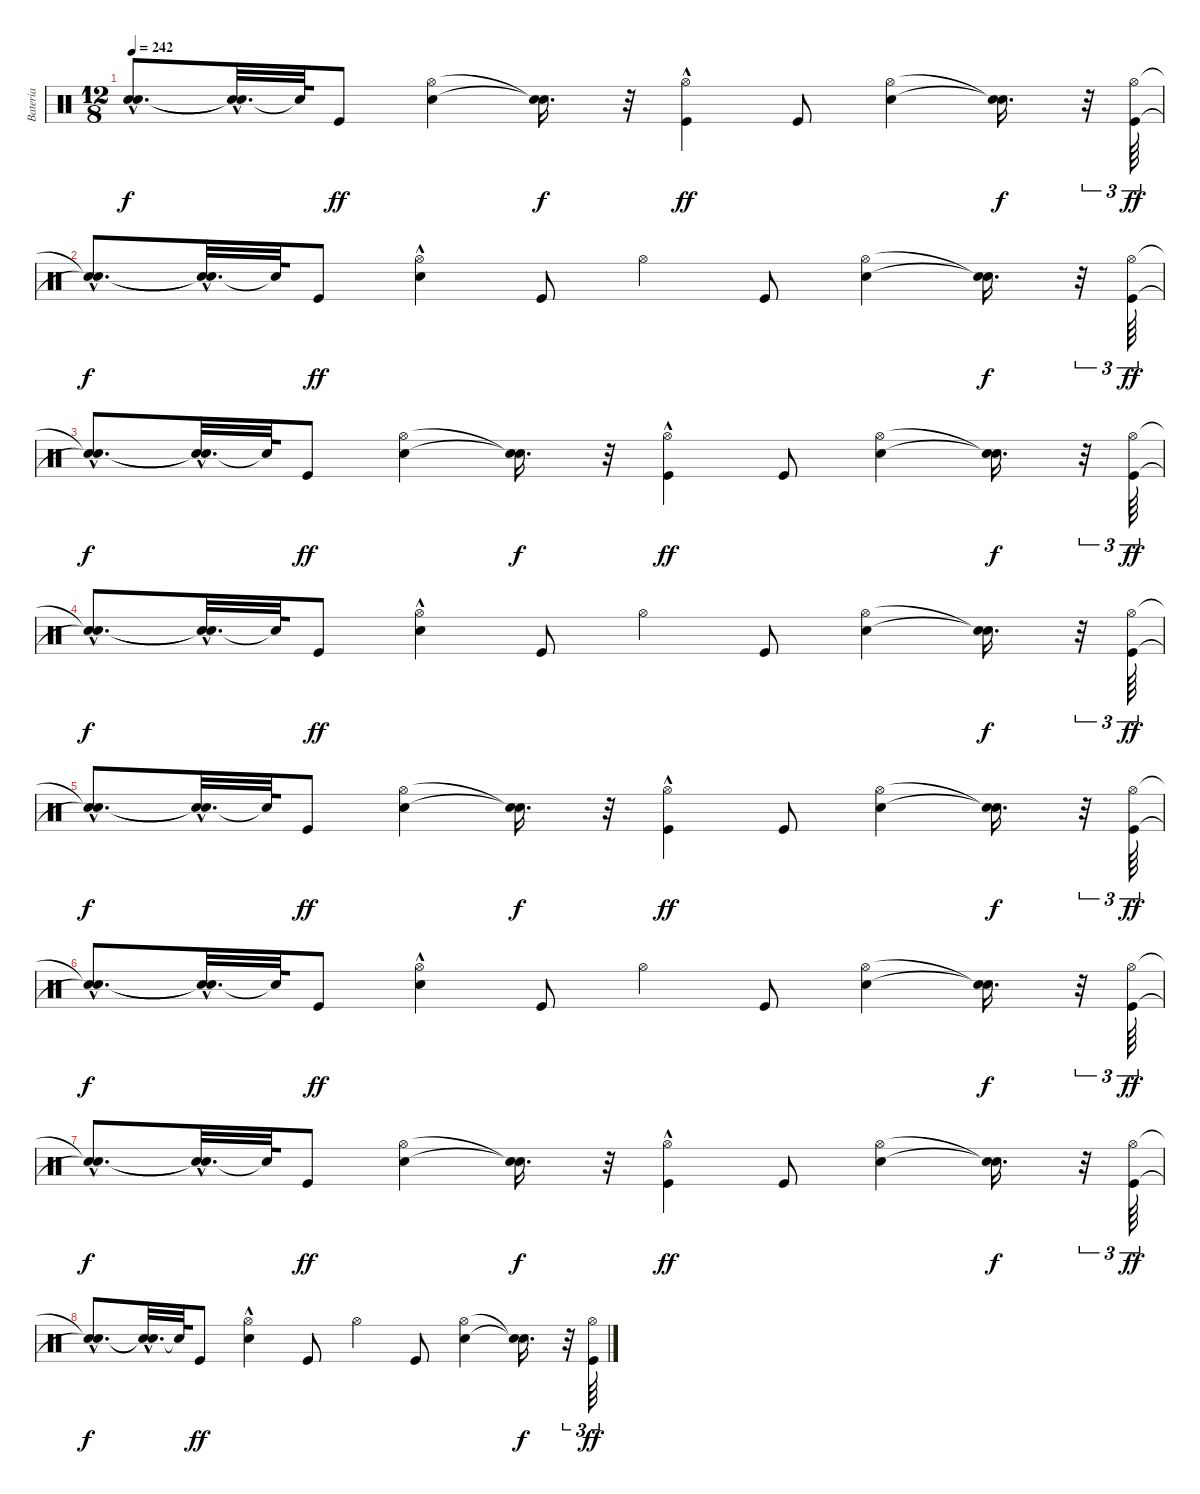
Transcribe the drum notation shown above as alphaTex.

\track ("Bateria" "Bateria") {instrument percussion}
\staff {score}
\articulation defaults
\ts (12 8)
\tempo 242
\clef neutral
\ks c
("Snare (hit)"{hac t} "Snare (hit)"{hac t}).8{d dy f} ("Snare (hit)"{t} "Snare (hit)"{hac t}).32{d} "Snare (hit)"{t}.64 "Kick (hit)".8{dy ff} ("Snare (hit) 2" "Hi-Hat (open)").4 ("Snare (hit)"{t} "Snare (hit)"{t}).16{d dy f} r.32 ("Kick (hit)"{hac} "Hi-Hat (open)").4{dy ff} "Kick (hit)".8 ("Snare (hit) 2" "Hi-Hat (open)").4 ("Snare (hit)"{t} "Snare (hit)"{t}).16{d dy f} r.32{tu (3 2)} ("Kick (hit)" "Hi-Hat (open)").64{tu (3 2) dy ff} |
("Snare (hit)"{hac t} "Snare (hit)"{hac t}).8{d dy f} ("Snare (hit)"{t} "Snare (hit)"{hac t}).32{d} "Snare (hit)"{t}.64 "Kick (hit)".8{dy ff} ("Snare (hit) 2"{hac} "Hi-Hat (open)").4 "Kick (hit)".8 "Hi-Hat (open)".4 "Kick (hit)".8 ("Snare (hit) 2" "Hi-Hat (open)").4 ("Snare (hit)"{t} "Snare (hit)"{t}).16{d dy f} r.32{tu (3 2)} ("Kick (hit)" "Hi-Hat (open)").64{tu (3 2) dy ff} |
("Snare (hit)"{hac t} "Snare (hit)"{hac t}).8{d dy f} ("Snare (hit)"{t} "Snare (hit)"{hac t}).32{d} "Snare (hit)"{t}.64 "Kick (hit)".8{dy ff} ("Snare (hit) 2" "Hi-Hat (open)").4 ("Snare (hit)"{t} "Snare (hit)"{t}).16{d dy f} r.32 ("Kick (hit)"{hac} "Hi-Hat (open)").4{dy ff} "Kick (hit)".8 ("Snare (hit) 2" "Hi-Hat (open)").4 ("Snare (hit)"{t} "Snare (hit)"{t}).16{d dy f} r.32{tu (3 2)} ("Kick (hit)" "Hi-Hat (open)").64{tu (3 2) dy ff} |
("Snare (hit)"{hac t} "Snare (hit)"{hac t}).8{d dy f} ("Snare (hit)"{t} "Snare (hit)"{hac t}).32{d} "Snare (hit)"{t}.64 "Kick (hit)".8{dy ff} ("Snare (hit) 2"{hac} "Hi-Hat (open)").4 "Kick (hit)".8 "Hi-Hat (open)".4 "Kick (hit)".8 ("Snare (hit) 2" "Hi-Hat (open)").4 ("Snare (hit)"{t} "Snare (hit)"{t}).16{d dy f} r.32{tu (3 2)} ("Kick (hit)" "Hi-Hat (open)").64{tu (3 2) dy ff} |
("Snare (hit)"{hac t} "Snare (hit)"{hac t}).8{d dy f} ("Snare (hit)"{t} "Snare (hit)"{hac t}).32{d} "Snare (hit)"{t}.64 "Kick (hit)".8{dy ff} ("Snare (hit) 2" "Hi-Hat (open)").4 ("Snare (hit)"{t} "Snare (hit)"{t}).16{d dy f} r.32 ("Kick (hit)"{hac} "Hi-Hat (open)").4{dy ff} "Kick (hit)".8 ("Snare (hit) 2" "Hi-Hat (open)").4 ("Snare (hit)"{t} "Snare (hit)"{t}).16{d dy f} r.32{tu (3 2)} ("Kick (hit)" "Hi-Hat (open)").64{tu (3 2) dy ff} |
("Snare (hit)"{hac t} "Snare (hit)"{hac t}).8{d dy f} ("Snare (hit)"{t} "Snare (hit)"{hac t}).32{d} "Snare (hit)"{t}.64 "Kick (hit)".8{dy ff} ("Snare (hit) 2"{hac} "Hi-Hat (open)").4 "Kick (hit)".8 "Hi-Hat (open)".4 "Kick (hit)".8 ("Snare (hit) 2" "Hi-Hat (open)").4 ("Snare (hit)"{t} "Snare (hit)"{t}).16{d dy f} r.32{tu (3 2)} ("Kick (hit)" "Hi-Hat (open)").64{tu (3 2) dy ff} |
("Snare (hit)"{hac t} "Snare (hit)"{hac t}).8{d dy f} ("Snare (hit)"{t} "Snare (hit)"{hac t}).32{d} "Snare (hit)"{t}.64 "Kick (hit)".8{dy ff} ("Snare (hit) 2" "Hi-Hat (open)").4 ("Snare (hit)"{t} "Snare (hit)"{t}).16{d dy f} r.32 ("Kick (hit)"{hac} "Hi-Hat (open)").4{dy ff} "Kick (hit)".8 ("Snare (hit) 2" "Hi-Hat (open)").4 ("Snare (hit)"{t} "Snare (hit)"{t}).16{d dy f} r.32{tu (3 2)} ("Kick (hit)" "Hi-Hat (open)").64{tu (3 2) dy ff} |
("Snare (hit)"{hac t} "Snare (hit)"{hac t}).8{d dy f} ("Snare (hit)"{t} "Snare (hit)"{hac t}).32{d} "Snare (hit)"{t}.64 "Kick (hit)".8{dy ff} ("Snare (hit) 2"{hac} "Hi-Hat (open)").4 "Kick (hit)".8 "Hi-Hat (open)".4 "Kick (hit)".8 ("Snare (hit) 2" "Hi-Hat (open)").4 ("Snare (hit)"{t} "Snare (hit)"{t}).16{d dy f} r.32{tu (3 2)} ("Kick (hit)" "Hi-Hat (open)").64{tu (3 2) dy ff}
